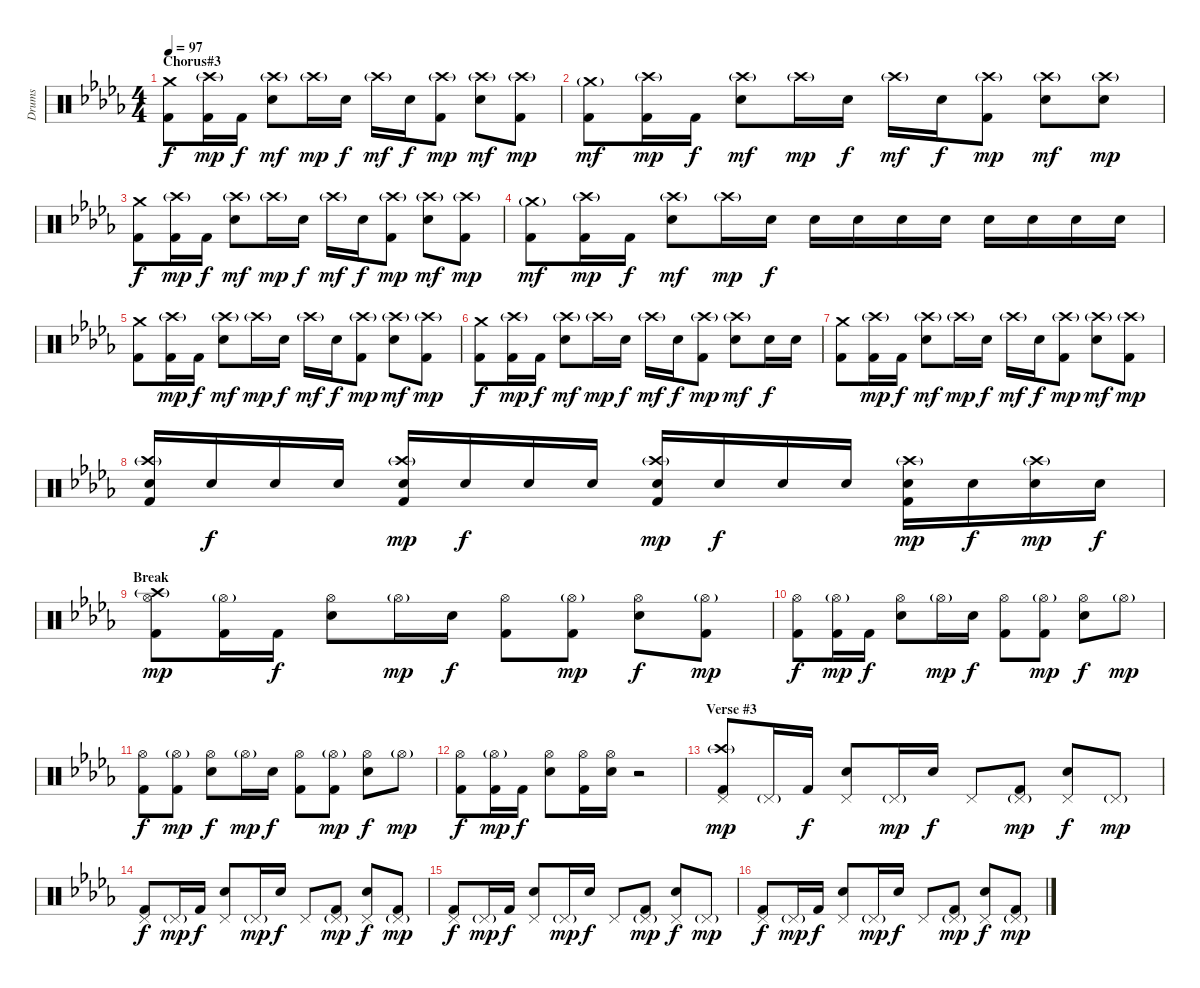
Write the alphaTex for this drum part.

\track ("Drums" "Drums") {instrument percussion}
\staff {score}
\articulation defaults
\ts (4 4)
\section ("" "Chorus#3")
\tempo 97
\clef neutral
\ks db
("Crash medium (hit)" "Kick (hit) 2").8{dy f} ("Crash high (hit)"{g} "Kick (hit) 2").16{dy mp} "Kick (hit) 2".16{dy f} ("Crash high (hit)"{g} "Electric Snare (hit)").8{dy mf} "Crash high (hit)"{g}.16{dy mp} "Electric Snare (hit)".16{dy f} "Crash high (hit)"{g}.16{dy mf} "Electric Snare (hit)".16{dy f} ("Crash high (hit)"{g} "Kick (hit) 2").8{dy mp} ("Crash high (hit)"{g} "Electric Snare (hit)").8{dy mf} ("Crash high (hit)"{g} "Kick (hit) 2").8{dy mp} |
("Crash medium (hit)"{g} "Kick (hit) 2").8{dy mf} ("Crash high (hit)"{g} "Kick (hit) 2").16{dy mp} "Kick (hit) 2".16{dy f} ("Crash high (hit)"{g} "Electric Snare (hit)").8{dy mf} "Crash high (hit)"{g}.16{dy mp} "Electric Snare (hit)".16{dy f} "Crash high (hit)"{g}.16{dy mf} "Electric Snare (hit)".16{dy f} ("Crash high (hit)"{g} "Kick (hit) 2").8{dy mp} ("Crash high (hit)"{g} "Electric Snare (hit)").8{dy mf} ("Crash high (hit)"{g} "Electric Snare (hit)").8{dy mp} |
("Crash medium (hit)" "Kick (hit) 2").8{dy f} ("Crash high (hit)"{g} "Kick (hit) 2").16{dy mp} "Kick (hit) 2".16{dy f} ("Crash high (hit)"{g} "Electric Snare (hit)").8{dy mf} "Crash high (hit)"{g}.16{dy mp} "Electric Snare (hit)".16{dy f} "Crash high (hit)"{g}.16{dy mf} "Electric Snare (hit)".16{dy f} ("Crash high (hit)"{g} "Kick (hit) 2").8{dy mp} ("Crash high (hit)"{g} "Electric Snare (hit)").8{dy mf} ("Crash high (hit)"{g} "Kick (hit) 2").8{dy mp} |
("Crash medium (hit)"{g} "Kick (hit) 2").8{dy mf} ("Crash high (hit)"{g} "Kick (hit) 2").16{dy mp} "Kick (hit) 2".16{dy f} ("Crash high (hit)"{g} "Electric Snare (hit)").8{dy mf} "Crash high (hit)"{g}.16{dy mp} "Electric Snare (hit)".16{dy f} "Electric Snare (hit)".16 "Electric Snare (hit)".16 "Electric Snare (hit)".16 "Electric Snare (hit)".16 "Electric Snare (hit)".16 "Electric Snare (hit)".16 "Electric Snare (hit)".16 "Electric Snare (hit)".16 |
("Crash medium (hit)" "Kick (hit) 2").8 ("Crash high (hit)"{g} "Kick (hit) 2").16{dy mp} "Kick (hit) 2".16{dy f} ("Crash high (hit)"{g} "Electric Snare (hit)").8{dy mf} "Crash high (hit)"{g}.16{dy mp} "Electric Snare (hit)".16{dy f} "Crash high (hit)"{g}.16{dy mf} "Electric Snare (hit)".16{dy f} ("Crash high (hit)"{g} "Kick (hit) 2").8{dy mp} ("Crash high (hit)"{g} "Electric Snare (hit)").8{dy mf} ("Crash high (hit)"{g} "Kick (hit) 2").8{dy mp} |
("Crash medium (hit)" "Kick (hit) 2").8{dy f} ("Crash high (hit)"{g} "Kick (hit) 2").16{dy mp} "Kick (hit) 2".16{dy f} ("Crash high (hit)"{g} "Electric Snare (hit)").8{dy mf} "Crash high (hit)"{g}.16{dy mp} "Electric Snare (hit)".16{dy f} "Crash high (hit)"{g}.16{dy mf} "Electric Snare (hit)".16{dy f} ("Crash high (hit)"{g} "Kick (hit) 2").8{dy mp} ("Crash high (hit)"{g} "Electric Snare (hit)").8{dy mf} "Electric Snare (hit)".16{dy f} "Electric Snare (hit)".16 |
("Crash medium (hit)" "Kick (hit) 2").8 ("Crash high (hit)"{g} "Kick (hit) 2").16{dy mp} "Kick (hit) 2".16{dy f} ("Crash high (hit)"{g} "Electric Snare (hit)").8{dy mf} "Crash high (hit)"{g}.16{dy mp} "Electric Snare (hit)".16{dy f} "Crash high (hit)"{g}.16{dy mf} "Electric Snare (hit)".16{dy f} ("Crash high (hit)"{g} "Kick (hit) 2").8{dy mp} ("Crash high (hit)"{g} "Electric Snare (hit)").8{dy mf} ("Crash high (hit)"{g} "Kick (hit) 2").8{dy mp} |
("Crash high (hit)"{g} "Electric Snare (hit)" "Kick (hit) 2").16 "Electric Snare (hit)".16{dy f} "Electric Snare (hit)".16 "Electric Snare (hit)".16 ("Crash high (hit)"{g} "Electric Snare (hit)" "Kick (hit) 2").16{dy mp} "Electric Snare (hit)".16{dy f} "Electric Snare (hit)".16 "Electric Snare (hit)".16 ("Crash high (hit)"{g} "Electric Snare (hit)" "Kick (hit) 2").16{dy mp} "Electric Snare (hit)".16{dy f} "Electric Snare (hit)".16 "Electric Snare (hit)".16 ("Crash high (hit)"{g} "Electric Snare (hit)" "Kick (hit) 2").16{dy mp} "Electric Snare (hit)".16{dy f} ("Crash high (hit)"{g} "Electric Snare (hit)").16{dy mp} "Electric Snare (hit)".16{dy f} |
\section ("" "Break")
("Hi-Hat (open)" "Crash high (hit)"{g} "Kick (hit) 2").8{dy mp} ("Hi-Hat (open)"{g} "Kick (hit) 2").16 "Kick (hit) 2".16{dy f} ("Hi-Hat (open)" "Electric Snare (hit)").8 "Hi-Hat (open)"{g}.16{dy mp} "Electric Snare (hit)".16{dy f} ("Hi-Hat (open)" "Kick (hit) 2").8 ("Hi-Hat (open)"{g} "Kick (hit) 2").8{dy mp} ("Hi-Hat (open)" "Electric Snare (hit)").8{dy f} ("Hi-Hat (open)"{g} "Kick (hit) 2").8{dy mp} |
("Hi-Hat (open)" "Kick (hit) 2").8{dy f} ("Hi-Hat (open)"{g} "Kick (hit) 2").16{dy mp} "Kick (hit) 2".16{dy f} ("Hi-Hat (open)" "Electric Snare (hit)").8 "Hi-Hat (open)"{g}.16{dy mp} "Electric Snare (hit)".16{dy f} ("Hi-Hat (open)" "Kick (hit) 2").8 ("Hi-Hat (open)"{g} "Kick (hit) 2").8{dy mp} ("Hi-Hat (open)" "Electric Snare (hit)").8{dy f} "Hi-Hat (open)"{g}.8{dy mp} |
("Hi-Hat (open)" "Kick (hit) 2").8{dy f} ("Hi-Hat (open)"{g} "Kick (hit) 2").8{dy mp} ("Hi-Hat (open)" "Electric Snare (hit)").8{dy f} "Hi-Hat (open)"{g}.16{dy mp} "Electric Snare (hit)".16{dy f} ("Hi-Hat (open)" "Kick (hit) 2").8 ("Hi-Hat (open)"{g} "Kick (hit) 2").8{dy mp} ("Hi-Hat (open)" "Electric Snare (hit)").8{dy f} "Hi-Hat (open)"{g}.8{dy mp} |
("Hi-Hat (open)" "Kick (hit) 2").8{dy f} ("Hi-Hat (open)"{g} "Kick (hit) 2").16{dy mp} "Kick (hit) 2".16{dy f} ("Hi-Hat (open)" "Electric Snare (hit)").8 ("Hi-Hat (open)" "Kick (hit) 2").16 ("Hi-Hat (open)" "Electric Snare (hit)").16 r.2 |
\section ("" "Verse #3")
("Pedal Hi-Hat (hit)" "Crash high (hit)"{g} "Kick (hit) 2").8{dy mp} "Pedal Hi-Hat (hit)"{g}.16{volume 10} "Kick (hit) 2".16{dy f} ("Pedal Hi-Hat (hit)" "Electric Snare (hit)").8 "Pedal Hi-Hat (hit)"{g}.16{dy mp} "Electric Snare (hit)".16{dy f} "Pedal Hi-Hat (hit)".8 ("Pedal Hi-Hat (hit)"{g} "Kick (hit) 2").8{dy mp} ("Pedal Hi-Hat (hit)" "Electric Snare (hit)").8{dy f} "Pedal Hi-Hat (hit)"{g}.8{dy mp} |
("Pedal Hi-Hat (hit)" "Kick (hit) 2").8{dy f} "Pedal Hi-Hat (hit)"{g}.16{dy mp} "Kick (hit) 2".16{dy f} ("Pedal Hi-Hat (hit)" "Electric Snare (hit)").8 "Pedal Hi-Hat (hit)"{g}.16{dy mp} "Electric Snare (hit)".16{dy f} "Pedal Hi-Hat (hit)".8 ("Pedal Hi-Hat (hit)"{g} "Kick (hit) 2").8{dy mp} ("Pedal Hi-Hat (hit)" "Electric Snare (hit)").8{dy f} ("Pedal Hi-Hat (hit)"{g} "Kick (hit) 2").8{dy mp} |
("Pedal Hi-Hat (hit)" "Kick (hit) 2").8{dy f} "Pedal Hi-Hat (hit)"{g}.16{dy mp} "Kick (hit) 2".16{dy f} ("Pedal Hi-Hat (hit)" "Electric Snare (hit)").8 "Pedal Hi-Hat (hit)"{g}.16{dy mp} "Electric Snare (hit)".16{dy f} "Pedal Hi-Hat (hit)".8 ("Pedal Hi-Hat (hit)"{g} "Kick (hit) 2").8{dy mp} ("Pedal Hi-Hat (hit)" "Electric Snare (hit)").8{dy f} "Pedal Hi-Hat (hit)"{g}.8{dy mp} |
("Pedal Hi-Hat (hit)" "Kick (hit) 2").8{dy f} "Pedal Hi-Hat (hit)"{g}.16{dy mp} "Kick (hit) 2".16{dy f} ("Pedal Hi-Hat (hit)" "Electric Snare (hit)").8 "Pedal Hi-Hat (hit)"{g}.16{dy mp} "Electric Snare (hit)".16{dy f} "Pedal Hi-Hat (hit)".8 ("Pedal Hi-Hat (hit)"{g} "Kick (hit) 2").8{dy mp} ("Pedal Hi-Hat (hit)" "Electric Snare (hit)").8{dy f} ("Pedal Hi-Hat (hit)"{g} "Kick (hit) 2").8{dy mp}
